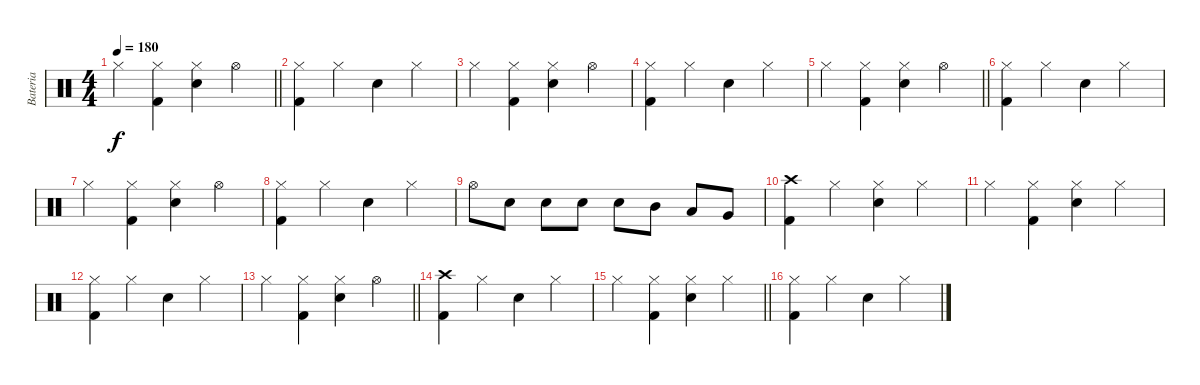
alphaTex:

\track ("Bateria" "Bateria") {instrument percussion}
\staff {score}
\articulation defaults
\ts (4 4)
\tempo 180
\clef neutral
\barLineRight lightlight
\ks c "Hi-Hat (closed)".4{dy f}
("Hi-Hat (closed)" "Kick (hit) 2").4 ("Hi-Hat (closed)" "Electric Snare (hit)").4 "Hi-Hat (open)".4 |
("Hi-Hat (closed)" "Kick (hit) 2").4 "Hi-Hat (closed)".4 "Electric Snare (hit)".4 "Hi-Hat (closed)".4 |
"Hi-Hat (closed)".4 ("Hi-Hat (closed)" "Kick (hit) 2").4 ("Hi-Hat (closed)" "Electric Snare (hit)").4 "Hi-Hat (open)".4 |
("Hi-Hat (closed)" "Kick (hit) 2").4 "Hi-Hat (closed)".4 "Electric Snare (hit)".4 "Hi-Hat (closed)".4 |
\barLineRight lightlight "Hi-Hat (closed)".4
("Hi-Hat (closed)" "Kick (hit) 2").4 ("Hi-Hat (closed)" "Electric Snare (hit)").4 "Hi-Hat (open)".4 |
("Hi-Hat (closed)" "Kick (hit) 2").4 "Hi-Hat (closed)".4 "Electric Snare (hit)".4 "Hi-Hat (closed)".4 |
"Hi-Hat (closed)".4 ("Hi-Hat (closed)" "Kick (hit) 2").4 ("Hi-Hat (closed)" "Electric Snare (hit)").4 "Hi-Hat (open)".4 |
("Hi-Hat (closed)" "Kick (hit) 2").4 "Hi-Hat (closed)".4 "Electric Snare (hit)".4 "Hi-Hat (closed)".4 |
"Hi-Hat (open)".8 "Electric Snare (hit)".8 "Electric Snare (hit)".8 "Electric Snare (hit)".8 "Electric Snare (hit)".8 "Mid Tom (hit)".8 "Low Tom (hit)".8 "Very Low Tom (hit)".8 |
("Crash high (hit)" "Kick (hit) 2").4 "Hi-Hat (closed)".4 ("Electric Snare (hit)" "Hi-Hat (closed)").4 "Hi-Hat (closed)".4 |
"Hi-Hat (closed)".4 ("Hi-Hat (closed)" "Kick (hit) 2").4 ("Hi-Hat (closed)" "Electric Snare (hit)").4 "Hi-Hat (closed)".4 |
("Hi-Hat (closed)" "Kick (hit) 2").4 "Hi-Hat (closed)".4 "Electric Snare (hit)".4 "Hi-Hat (closed)".4 |
\barLineRight lightlight "Hi-Hat (closed)".4
("Hi-Hat (closed)" "Kick (hit) 2").4 ("Hi-Hat (closed)" "Electric Snare (hit)").4 "Hi-Hat (open)".4 |
("Crash high (hit)" "Kick (hit) 2").4 "Hi-Hat (closed)".4 "Electric Snare (hit)".4 "Hi-Hat (closed)".4 |
\barLineRight lightlight "Hi-Hat (closed)".4
("Hi-Hat (closed)" "Kick (hit) 2").4 ("Hi-Hat (closed)" "Electric Snare (hit)").4 "Hi-Hat (closed)".4 |
("Hi-Hat (closed)" "Kick (hit) 2").4 "Hi-Hat (closed)".4 "Electric Snare (hit)".4 "Hi-Hat (closed)".4
